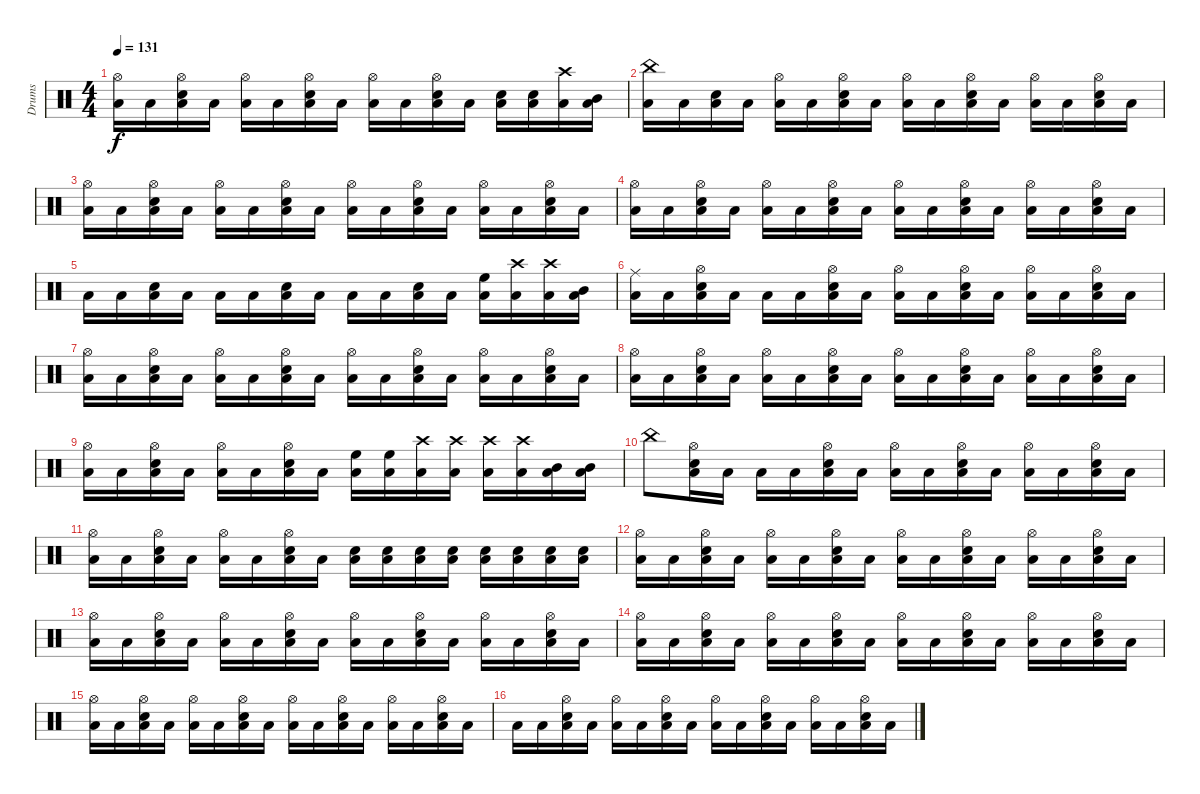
\track ("Drums" "Drums") {instrument percussion}
\staff {score}
\articulation defaults
\ts (4 4)
\tempo 131
\clef neutral
\ks c
("Low Tom (hit)" "Hi-Hat (open)").16{dy f} "Low Tom (hit)".16 ("Electric Snare (hit)" "Low Tom (hit)" "Hi-Hat (open)").16 "Low Tom (hit)".16 ("Low Tom (hit)" "Hi-Hat (open)").16 "Low Tom (hit)".16 ("Electric Snare (hit)" "Low Tom (hit)" "Hi-Hat (open)").16 "Low Tom (hit)".16 ("Low Tom (hit)" "Hi-Hat (open)").16 "Low Tom (hit)".16 ("Electric Snare (hit)" "Low Tom (hit)" "Hi-Hat (open)").16 "Low Tom (hit)".16 ("Electric Snare (hit)" "Low Tom (hit)").16 ("Electric Snare (hit)" "Low Tom (hit)").16 ("Crash high (hit)" "Low Tom (hit)").16 ("Mid Tom (hit)" "Low Tom (hit)").16 |
("China (hit)" "Low Tom (hit)").16 "Low Tom (hit)".16 ("Electric Snare (hit)" "Low Tom (hit)").16 "Low Tom (hit)".16 ("Low Tom (hit)" "Hi-Hat (open)").16 "Low Tom (hit)".16 ("Electric Snare (hit)" "Low Tom (hit)" "Hi-Hat (open)").16 "Low Tom (hit)".16 ("Low Tom (hit)" "Hi-Hat (open)").16 "Low Tom (hit)".16 ("Electric Snare (hit)" "Low Tom (hit)" "Hi-Hat (open)").16 "Low Tom (hit)".16 ("Low Tom (hit)" "Hi-Hat (open)").16 "Low Tom (hit)".16 ("Electric Snare (hit)" "Low Tom (hit)" "Hi-Hat (open)").16 "Low Tom (hit)".16 |
("Low Tom (hit)" "Hi-Hat (open)").16 "Low Tom (hit)".16 ("Low Tom (hit)" "Electric Snare (hit)" "Hi-Hat (open)").16 "Low Tom (hit)".16 ("Low Tom (hit)" "Hi-Hat (open)").16 "Low Tom (hit)".16 ("Low Tom (hit)" "Electric Snare (hit)" "Hi-Hat (open)").16 "Low Tom (hit)".16 ("Low Tom (hit)" "Hi-Hat (open)").16 "Low Tom (hit)".16 ("Low Tom (hit)" "Electric Snare (hit)" "Hi-Hat (open)").16 "Low Tom (hit)".16 ("Low Tom (hit)" "Hi-Hat (open)").16 "Low Tom (hit)".16 ("Low Tom (hit)" "Electric Snare (hit)" "Hi-Hat (open)").16 "Low Tom (hit)".16 |
("Low Tom (hit)" "Hi-Hat (open)").16 "Low Tom (hit)".16 ("Electric Snare (hit)" "Low Tom (hit)" "Hi-Hat (open)").16 "Low Tom (hit)".16 ("Low Tom (hit)" "Hi-Hat (open)").16 "Low Tom (hit)".16 ("Electric Snare (hit)" "Low Tom (hit)" "Hi-Hat (open)").16 "Low Tom (hit)".16 ("Low Tom (hit)" "Hi-Hat (open)").16 "Low Tom (hit)".16 ("Electric Snare (hit)" "Low Tom (hit)" "Hi-Hat (open)").16 "Low Tom (hit)".16 ("Low Tom (hit)" "Hi-Hat (open)").16 "Low Tom (hit)".16 ("Electric Snare (hit)" "Low Tom (hit)" "Hi-Hat (open)").16 "Low Tom (hit)".16 |
"Low Tom (hit)".16 "Low Tom (hit)".16 ("Low Tom (hit)" "Electric Snare (hit)").16 "Low Tom (hit)".16 "Low Tom (hit)".16 "Low Tom (hit)".16 ("Low Tom (hit)" "Electric Snare (hit)").16 "Low Tom (hit)".16 "Low Tom (hit)".16 "Low Tom (hit)".16 ("Low Tom (hit)" "Electric Snare (hit)").16 "Low Tom (hit)".16 ("Low Tom (hit)" "High Floor Tom (hit)").16 ("Low Tom (hit)" "Crash high (hit)").16 ("Low Tom (hit)" "Crash high (hit)").16 ("Low Tom (hit)" "Mid Tom (hit)").16 |
("Low Tom (hit)" "Ride (middle)").16 "Low Tom (hit)".16 ("Hi-Hat (open)" "Low Tom (hit)" "Electric Snare (hit)").16 "Low Tom (hit)".16 "Low Tom (hit)".16 "Low Tom (hit)".16 ("Hi-Hat (open)" "Low Tom (hit)" "Electric Snare (hit)").16 "Low Tom (hit)".16 ("Hi-Hat (open)" "Low Tom (hit)").16 "Low Tom (hit)".16 ("Hi-Hat (open)" "Low Tom (hit)" "Electric Snare (hit)").16 "Low Tom (hit)".16 ("Hi-Hat (open)" "Low Tom (hit)").16 "Low Tom (hit)".16 ("Hi-Hat (open)" "Low Tom (hit)" "Electric Snare (hit)").16 "Low Tom (hit)".16 |
("Hi-Hat (open)" "Low Tom (hit)").16 "Low Tom (hit)".16 ("Hi-Hat (open)" "Low Tom (hit)" "Electric Snare (hit)").16 "Low Tom (hit)".16 ("Hi-Hat (open)" "Low Tom (hit)").16 "Low Tom (hit)".16 ("Hi-Hat (open)" "Low Tom (hit)" "Electric Snare (hit)").16 "Low Tom (hit)".16 ("Hi-Hat (open)" "Low Tom (hit)").16 "Low Tom (hit)".16 ("Hi-Hat (open)" "Low Tom (hit)" "Electric Snare (hit)").16 "Low Tom (hit)".16 ("Hi-Hat (open)" "Low Tom (hit)").16 "Low Tom (hit)".16 ("Hi-Hat (open)" "Low Tom (hit)" "Electric Snare (hit)").16 "Low Tom (hit)".16 |
("Hi-Hat (open)" "Low Tom (hit)").16 "Low Tom (hit)".16 ("Hi-Hat (open)" "Low Tom (hit)" "Electric Snare (hit)").16 "Low Tom (hit)".16 ("Hi-Hat (open)" "Low Tom (hit)").16 "Low Tom (hit)".16 ("Hi-Hat (open)" "Low Tom (hit)" "Electric Snare (hit)").16 "Low Tom (hit)".16 ("Hi-Hat (open)" "Low Tom (hit)").16 "Low Tom (hit)".16 ("Hi-Hat (open)" "Low Tom (hit)" "Electric Snare (hit)").16 "Low Tom (hit)".16 ("Hi-Hat (open)" "Low Tom (hit)").16 "Low Tom (hit)".16 ("Hi-Hat (open)" "Low Tom (hit)" "Electric Snare (hit)").16 "Low Tom (hit)".16 |
("Hi-Hat (open)" "Low Tom (hit)").16 "Low Tom (hit)".16 ("Hi-Hat (open)" "Low Tom (hit)" "Electric Snare (hit)").16 "Low Tom (hit)".16 ("Hi-Hat (open)" "Low Tom (hit)").16 "Low Tom (hit)".16 ("Hi-Hat (open)" "Low Tom (hit)" "Electric Snare (hit)").16 "Low Tom (hit)".16 ("Low Tom (hit)" "High Floor Tom (hit)").16 ("Low Tom (hit)" "High Floor Tom (hit)").16 ("Low Tom (hit)" "Crash high (hit)").16 ("Low Tom (hit)" "Crash high (hit)").16 ("Low Tom (hit)" "Crash high (hit)").16 ("Low Tom (hit)" "Crash high (hit)").16 ("Low Tom (hit)" "Mid Tom (hit)").16 ("Low Tom (hit)" "Mid Tom (hit)").16 |
"China (hit)".8 ("Electric Snare (hit)" "Low Tom (hit)" "Hi-Hat (open)").16 "Low Tom (hit)".16 "Low Tom (hit)".16 "Low Tom (hit)".16 ("Electric Snare (hit)" "Low Tom (hit)" "Hi-Hat (open)").16 "Low Tom (hit)".16 ("Low Tom (hit)" "Hi-Hat (open)").16 "Low Tom (hit)".16 ("Electric Snare (hit)" "Low Tom (hit)" "Hi-Hat (open)").16 "Low Tom (hit)".16 ("Low Tom (hit)" "Hi-Hat (open)").16 "Low Tom (hit)".16 ("Electric Snare (hit)" "Low Tom (hit)" "Hi-Hat (open)").16 "Low Tom (hit)".16 |
("Low Tom (hit)" "Hi-Hat (open)").16 "Low Tom (hit)".16 ("Electric Snare (hit)" "Low Tom (hit)" "Hi-Hat (open)").16 "Low Tom (hit)".16 ("Low Tom (hit)" "Hi-Hat (open)").16 "Low Tom (hit)".16 ("Electric Snare (hit)" "Low Tom (hit)" "Hi-Hat (open)").16 "Low Tom (hit)".16 ("Electric Snare (hit)" "Low Tom (hit)").16 ("Electric Snare (hit)" "Low Tom (hit)").16 ("Electric Snare (hit)" "Low Tom (hit)").16 ("Electric Snare (hit)" "Low Tom (hit)").16 ("Electric Snare (hit)" "Low Tom (hit)").16 ("Electric Snare (hit)" "Low Tom (hit)").16 ("Electric Snare (hit)" "Low Tom (hit)").16 ("Electric Snare (hit)" "Low Tom (hit)").16 |
("Low Tom (hit)" "Hi-Hat (open)").16 "Low Tom (hit)".16 ("Electric Snare (hit)" "Low Tom (hit)" "Hi-Hat (open)").16 "Low Tom (hit)".16 ("Low Tom (hit)" "Hi-Hat (open)").16 "Low Tom (hit)".16 ("Electric Snare (hit)" "Low Tom (hit)" "Hi-Hat (open)").16 "Low Tom (hit)".16 ("Low Tom (hit)" "Hi-Hat (open)").16 "Low Tom (hit)".16 ("Electric Snare (hit)" "Low Tom (hit)" "Hi-Hat (open)").16 "Low Tom (hit)".16 ("Low Tom (hit)" "Hi-Hat (open)").16 "Low Tom (hit)".16 ("Electric Snare (hit)" "Low Tom (hit)" "Hi-Hat (open)").16 "Low Tom (hit)".16 |
("Low Tom (hit)" "Hi-Hat (open)").16 "Low Tom (hit)".16 ("Electric Snare (hit)" "Low Tom (hit)" "Hi-Hat (open)").16 "Low Tom (hit)".16 ("Low Tom (hit)" "Hi-Hat (open)").16 "Low Tom (hit)".16 ("Electric Snare (hit)" "Low Tom (hit)" "Hi-Hat (open)").16 "Low Tom (hit)".16 ("Low Tom (hit)" "Hi-Hat (open)").16 "Low Tom (hit)".16 ("Electric Snare (hit)" "Low Tom (hit)" "Hi-Hat (open)").16 "Low Tom (hit)".16 ("Low Tom (hit)" "Hi-Hat (open)").16 "Low Tom (hit)".16 ("Electric Snare (hit)" "Low Tom (hit)" "Hi-Hat (open)").16 "Low Tom (hit)".16 |
("Low Tom (hit)" "Hi-Hat (open)").16 "Low Tom (hit)".16 ("Electric Snare (hit)" "Low Tom (hit)" "Hi-Hat (open)").16 "Low Tom (hit)".16 ("Low Tom (hit)" "Hi-Hat (open)").16 "Low Tom (hit)".16 ("Electric Snare (hit)" "Low Tom (hit)" "Hi-Hat (open)").16 "Low Tom (hit)".16 ("Low Tom (hit)" "Hi-Hat (open)").16 "Low Tom (hit)".16 ("Electric Snare (hit)" "Low Tom (hit)" "Hi-Hat (open)").16 "Low Tom (hit)".16 ("Low Tom (hit)" "Hi-Hat (open)").16 "Low Tom (hit)".16 ("Electric Snare (hit)" "Low Tom (hit)" "Hi-Hat (open)").16 "Low Tom (hit)".16 |
("Low Tom (hit)" "Hi-Hat (open)").16 "Low Tom (hit)".16 ("Electric Snare (hit)" "Low Tom (hit)" "Hi-Hat (open)").16 "Low Tom (hit)".16 ("Low Tom (hit)" "Hi-Hat (open)").16 "Low Tom (hit)".16 ("Electric Snare (hit)" "Low Tom (hit)" "Hi-Hat (open)").16 "Low Tom (hit)".16 ("Low Tom (hit)" "Hi-Hat (open)").16 "Low Tom (hit)".16 ("Electric Snare (hit)" "Low Tom (hit)" "Hi-Hat (open)").16 "Low Tom (hit)".16 ("Low Tom (hit)" "Hi-Hat (open)").16 "Low Tom (hit)".16 ("Electric Snare (hit)" "Low Tom (hit)" "Hi-Hat (open)").16 "Low Tom (hit)".16 |
"Low Tom (hit)".16 "Low Tom (hit)".16 ("Electric Snare (hit)" "Low Tom (hit)" "Hi-Hat (open)").16 "Low Tom (hit)".16 ("Low Tom (hit)" "Hi-Hat (open)").16 "Low Tom (hit)".16 ("Electric Snare (hit)" "Low Tom (hit)" "Hi-Hat (open)").16 "Low Tom (hit)".16 ("Low Tom (hit)" "Hi-Hat (open)").16 "Low Tom (hit)".16 ("Electric Snare (hit)" "Low Tom (hit)" "Hi-Hat (open)").16 "Low Tom (hit)".16 ("Low Tom (hit)" "Hi-Hat (open)").16 "Low Tom (hit)".16 ("Electric Snare (hit)" "Low Tom (hit)" "Hi-Hat (open)").16 "Low Tom (hit)".16
